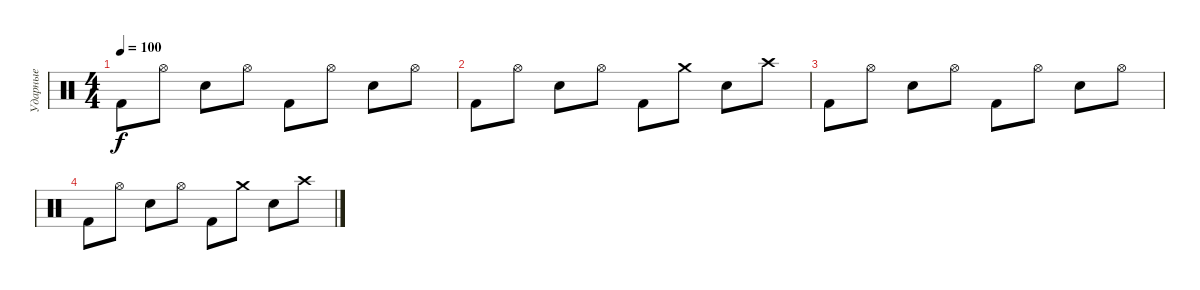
\track ("Ударные" "Ударные") {instrument percussion}
\staff {score}
\articulation defaults
\ts (4 4)
\tempo 100
\clef neutral
\ks c "Kick (hit) 2".8{dy f} "Hi-Hat (open)".8 "Electric Snare (hit)".8 "Hi-Hat (open)".8 "Kick (hit) 2".8 "Hi-Hat (open)".8 "Electric Snare (hit)".8 "Hi-Hat (open)".8
|
"Kick (hit) 2".8 "Hi-Hat (open)".8 "Electric Snare (hit)".8 "Hi-Hat (open)".8 "Kick (hit) 2".8 "Crash medium (hit)".8 "Electric Snare (hit)".8 "Crash high (hit)".8 |
"Kick (hit) 2".8 "Hi-Hat (open)".8 "Electric Snare (hit)".8 "Hi-Hat (open)".8 "Kick (hit) 2".8 "Hi-Hat (open)".8 "Electric Snare (hit)".8 "Hi-Hat (open)".8 |
"Kick (hit) 2".8 "Hi-Hat (open)".8 "Electric Snare (hit)".8 "Hi-Hat (open)".8 "Kick (hit) 2".8 "Crash medium (hit)".8 "Electric Snare (hit)".8 "Crash high (hit)".8
